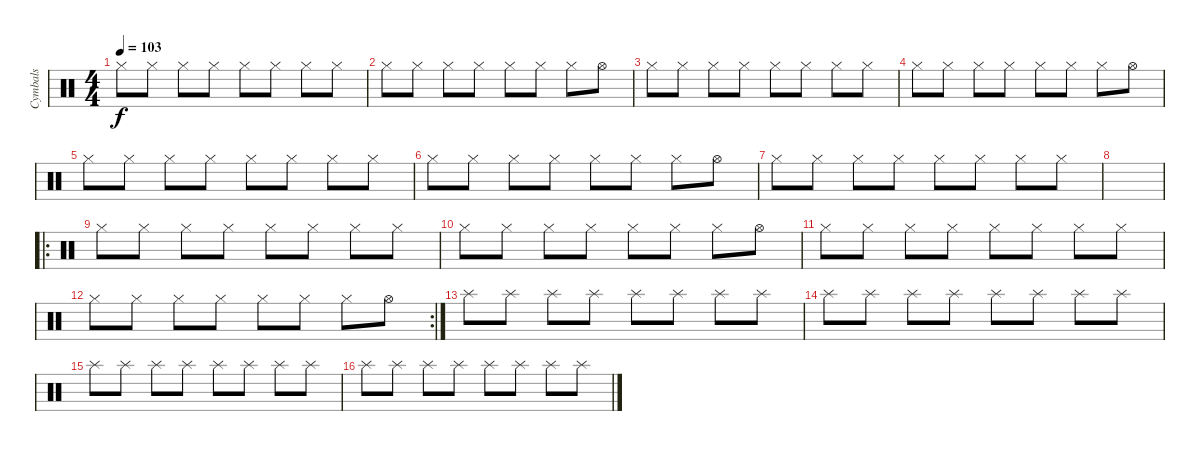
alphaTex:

\track ("Cymbals" "Cymbals") {instrument percussion}
\staff {score}
\articulation defaults
\ts (4 4)
\tempo 103
\clef neutral
\ks c "Hi-Hat (closed)".8{dy f} "Hi-Hat (closed)".8 "Hi-Hat (closed)".8 "Hi-Hat (closed)".8 "Hi-Hat (closed)".8 "Hi-Hat (closed)".8 "Hi-Hat (closed)".8 "Hi-Hat (closed)".8
|
"Hi-Hat (closed)".8 "Hi-Hat (closed)".8 "Hi-Hat (closed)".8 "Hi-Hat (closed)".8 "Hi-Hat (closed)".8 "Hi-Hat (closed)".8 "Hi-Hat (closed)".8 "Hi-Hat (open)".8 |
"Hi-Hat (closed)".8 "Hi-Hat (closed)".8 "Hi-Hat (closed)".8 "Hi-Hat (closed)".8 "Hi-Hat (closed)".8 "Hi-Hat (closed)".8 "Hi-Hat (closed)".8 "Hi-Hat (closed)".8 |
"Hi-Hat (closed)".8 "Hi-Hat (closed)".8 "Hi-Hat (closed)".8 "Hi-Hat (closed)".8 "Hi-Hat (closed)".8 "Hi-Hat (closed)".8 "Hi-Hat (closed)".8 "Hi-Hat (open)".8 |
"Hi-Hat (closed)".8 "Hi-Hat (closed)".8 "Hi-Hat (closed)".8 "Hi-Hat (closed)".8 "Hi-Hat (closed)".8 "Hi-Hat (closed)".8 "Hi-Hat (closed)".8 "Hi-Hat (closed)".8 |
"Hi-Hat (closed)".8 "Hi-Hat (closed)".8 "Hi-Hat (closed)".8 "Hi-Hat (closed)".8 "Hi-Hat (closed)".8 "Hi-Hat (closed)".8 "Hi-Hat (closed)".8 "Hi-Hat (open)".8 |
"Hi-Hat (closed)".8 "Hi-Hat (closed)".8 "Hi-Hat (closed)".8 "Hi-Hat (closed)".8 "Hi-Hat (closed)".8 "Hi-Hat (closed)".8 "Hi-Hat (closed)".8 "Hi-Hat (closed)".8 |
|
\ro "Hi-Hat (closed)".8 "Hi-Hat (closed)".8 "Hi-Hat (closed)".8 "Hi-Hat (closed)".8 "Hi-Hat (closed)".8 "Hi-Hat (closed)".8 "Hi-Hat (closed)".8 "Hi-Hat (closed)".8
|
"Hi-Hat (closed)".8 "Hi-Hat (closed)".8 "Hi-Hat (closed)".8 "Hi-Hat (closed)".8 "Hi-Hat (closed)".8 "Hi-Hat (closed)".8 "Hi-Hat (closed)".8 "Hi-Hat (open)".8 |
"Hi-Hat (closed)".8 "Hi-Hat (closed)".8 "Hi-Hat (closed)".8 "Hi-Hat (closed)".8 "Hi-Hat (closed)".8 "Hi-Hat (closed)".8 "Hi-Hat (closed)".8 "Hi-Hat (closed)".8 |
\rc 2 "Hi-Hat (closed)".8 "Hi-Hat (closed)".8 "Hi-Hat (closed)".8 "Hi-Hat (closed)".8 "Hi-Hat (closed)".8 "Hi-Hat (closed)".8 "Hi-Hat (closed)".8 "Hi-Hat (open)".8
|
"Splash (hit)".8 "Splash (hit)".8 "Splash (hit)".8 "Splash (hit)".8 "Splash (hit)".8 "Splash (hit)".8 "Splash (hit)".8 "Splash (hit)".8 |
"Splash (hit)".8 "Splash (hit)".8 "Splash (hit)".8 "Splash (hit)".8 "Splash (hit)".8 "Splash (hit)".8 "Splash (hit)".8 "Splash (hit)".8 |
"Splash (hit)".8 "Splash (hit)".8 "Splash (hit)".8 "Splash (hit)".8 "Splash (hit)".8 "Splash (hit)".8 "Splash (hit)".8 "Splash (hit)".8 |
"Splash (hit)".8 "Splash (hit)".8 "Splash (hit)".8 "Splash (hit)".8 "Splash (hit)".8 "Splash (hit)".8 "Splash (hit)".8 "Splash (hit)".8
